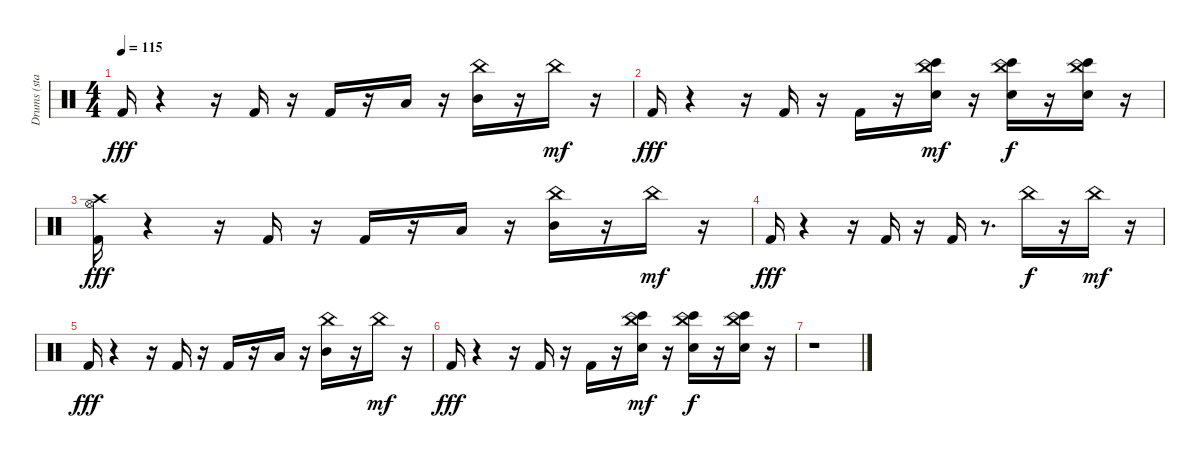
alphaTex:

\track ("Drums (stand.set)   " "Drums (sta") {instrument percussion}
\staff {score}
\articulation defaults
\ts (4 4)
\tempo 115
\clef neutral
\ks c "Kick (hit) 2".16{dy fff}
r.4 r.16 "Kick (hit) 2".16 r.16 "Kick (hit) 2".16 r.16 "Low Tom (hit)".16 r.16 ("Mid Tom (hit)" "China (hit)").16 r.16 "China (hit)".16{dy mf} r.16 |
"Kick (hit) 2".16{dy fff} r.4 r.16 "Kick (hit) 2".16 r.16 "Kick (hit) 2".16 r.16 ("Bongo High (hit)" "Hand Clap (hit)" "China (hit)").16{dy mf} r.16 ("Bongo High (hit)" "Hand Clap (hit)" "China (hit)").16{dy f} r.16 ("Bongo High (hit)" "Hand Clap (hit)" "China (hit)").16 r.16 |
("Kick (hit) 2" "Hi-Hat (open)" "Crash high (hit)").16{dy fff} r.4 r.16 "Kick (hit) 2".16 r.16 "Kick (hit) 2".16 r.16 "Low Tom (hit)".16 r.16 ("Mid Tom (hit)" "China (hit)").16 r.16 "China (hit)".16{dy mf} r.16 |
"Kick (hit) 2".16{dy fff} r.4 r.16 "Kick (hit) 2".16 r.16 "Kick (hit) 2".16 r.8{d} "China (hit)".16{dy f} r.16 "China (hit)".16{dy mf} r.16 |
"Kick (hit) 2".16{dy fff} r.4 r.16 "Kick (hit) 2".16 r.16 "Kick (hit) 2".16 r.16 "Low Tom (hit)".16 r.16 ("Mid Tom (hit)" "China (hit)").16 r.16 "China (hit)".16{dy mf} r.16 |
"Kick (hit) 2".16{dy fff} r.4 r.16 "Kick (hit) 2".16 r.16 "Kick (hit) 2".16 r.16 ("Bongo High (hit)" "Hand Clap (hit)" "China (hit)").16{dy mf} r.16 ("Bongo High (hit)" "Hand Clap (hit)" "China (hit)").16{dy f} r.16 ("Bongo High (hit)" "Hand Clap (hit)" "China (hit)").16 r.16 |
r.1
